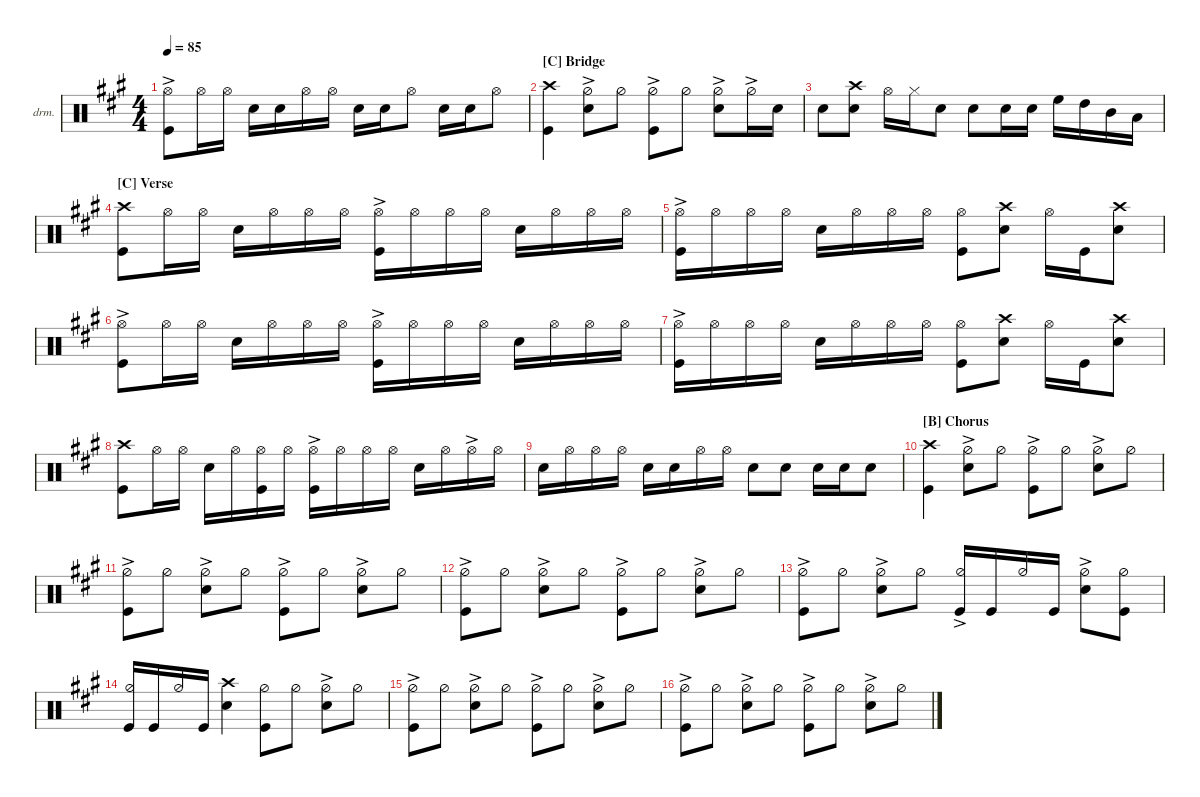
\defaultSystemsLayout 4
\hideDynamics
\bracketExtendMode nobrackets
\firstSystemTrackNameOrientation horizontal
\otherSystemsTrackNameOrientation horizontal
\track ("Drums" "drm.") {instrument percussion}
\staff {score}
\articulation defaults
\ts (4 4)
\tempo 85
\clef neutral
\ks a
("Kick (hit)"{acc forcenatural} "Hi-Hat (open)"{ac acc forcenatural}).8{dy mf beam Down} "Hi-Hat (open)"{acc forcenatural}.16{beam Down} "Hi-Hat (open)"{acc forcenatural}.16{beam Down} "Snare (hit) 2"{acc forcenatural}.16{beam Down} "Snare (hit) 2"{acc forcenatural}.16{beam Down} "Hi-Hat (open)"{acc forcenatural}.16{beam Down} "Hi-Hat (open)"{acc forcenatural}.16{beam Down} "Snare (hit) 2"{acc forcenatural}.16{beam Down} "Snare (hit) 2"{acc forcenatural}.16{beam Down} "Hi-Hat (open)"{acc forcenatural}.8{beam Down} "Snare (hit) 2"{acc forcenatural}.16{beam Down} "Snare (hit) 2"{acc forcenatural}.16{beam Down} "Hi-Hat (open)"{acc forcenatural}.8{beam Down} |
\section ("C" "Bridge")
("Kick (hit)"{acc forcenatural} "Crash high (hit)"{acc forcenatural}).4{beam Down} ("Snare (hit) 2"{acc forcenatural} "Hi-Hat (half)"{ac acc forcenatural}).8{beam Down} "Hi-Hat (half)"{acc forcenatural}.8{beam Down} ("Hi-Hat (half)"{ac acc forcenatural} "Kick (hit)"{acc forcenatural}).8{beam Down} "Hi-Hat (half)"{acc forcenatural}.8{beam Down} ("Snare (hit) 2"{acc forcenatural} "Hi-Hat (half)"{ac acc forcenatural}).8{beam Down} "Hi-Hat (half)"{ac acc forcenatural}.16{beam Down} "Snare (hit) 2"{acc forcenatural}.16{beam Down} |
"Snare (hit) 2"{acc forcenatural}.8{beam Down} ("Snare (hit) 2"{acc forcenatural} "Crash high (hit)"{acc forcenatural}).8{beam Down} "Hi-Hat (open)"{acc forcenatural}.16{beam Down} "Hi-Hat (closed)"{acc forcenatural}.16{beam Down} "Snare (hit) 2"{acc forcenatural}.8{beam Down} "Snare (hit) 2"{acc forcenatural}.8{beam Down} "Snare (hit) 2"{acc forcenatural}.16{beam Down} "Snare (hit) 2"{acc forcenatural}.16{beam Down} "High Floor Tom (hit)"{acc forcenatural}.16{beam Down} "High Tom (hit)"{acc forcenatural}.16{beam Down} "Mid Tom (hit)"{acc forcenatural}.16{beam Down} "Low Tom (hit)"{acc forcenatural}.16{beam Down} |
\section ("C" "Verse")
("Kick (hit)"{acc forcenatural} "Crash high (hit)"{acc forcenatural}).8{beam Down} "Hi-Hat (open)"{acc forcenatural}.16{beam Down} "Hi-Hat (open)"{acc forcenatural}.16{beam Down} "Snare (hit) 2"{acc forcenatural}.16{beam Down} "Hi-Hat (open)"{acc forcenatural}.16{beam Down} "Hi-Hat (open)"{acc forcenatural}.16{beam Down} "Hi-Hat (open)"{acc forcenatural}.16{beam Down} ("Hi-Hat (open)"{ac acc forcenatural} "Kick (hit)"{acc forcenatural}).16{beam Down} "Hi-Hat (open)"{acc forcenatural}.16{beam Down} "Hi-Hat (open)"{acc forcenatural}.16{beam Down} "Hi-Hat (open)"{acc forcenatural}.16{beam Down} "Snare (hit) 2"{acc forcenatural}.16{beam Down} "Hi-Hat (open)"{acc forcenatural}.16{beam Down} "Hi-Hat (open)"{acc forcenatural}.16{beam Down} "Hi-Hat (open)"{acc forcenatural}.16{beam Down} |
("Kick (hit)"{acc forcenatural} "Hi-Hat (open)"{ac acc forcenatural}).16{beam Down} "Hi-Hat (open)"{acc forcenatural}.16{beam Down} "Hi-Hat (open)"{acc forcenatural}.16{beam Down} "Hi-Hat (open)"{acc forcenatural}.16{beam Down} "Snare (hit) 2"{acc forcenatural}.16{beam Down} "Hi-Hat (open)"{acc forcenatural}.16{beam Down} "Hi-Hat (open)"{acc forcenatural}.16{beam Down} "Hi-Hat (open)"{acc forcenatural}.16{beam Down} ("Hi-Hat (open)"{acc forcenatural} "Kick (hit)"{acc forcenatural}).8{beam Down} ("Snare (hit) 2"{acc forcenatural} "Crash high (hit)"{acc forcenatural}).8{beam Down} "Hi-Hat (open)"{acc forcenatural}.16{beam Down} "Kick (hit)"{acc forcenatural}.16{beam Down} ("Snare (hit) 2"{acc forcenatural} "Crash high (hit)"{acc forcenatural}).8{beam Down} |
("Kick (hit)"{acc forcenatural} "Hi-Hat (open)"{ac acc forcenatural}).8{beam Down} "Hi-Hat (open)"{acc forcenatural}.16{beam Down} "Hi-Hat (open)"{acc forcenatural}.16{beam Down} "Snare (hit) 2"{acc forcenatural}.16{beam Down} "Hi-Hat (open)"{acc forcenatural}.16{beam Down} "Hi-Hat (open)"{acc forcenatural}.16{beam Down} "Hi-Hat (open)"{acc forcenatural}.16{beam Down} ("Hi-Hat (open)"{ac acc forcenatural} "Kick (hit)"{acc forcenatural}).16{beam Down} "Hi-Hat (open)"{acc forcenatural}.16{beam Down} "Hi-Hat (open)"{acc forcenatural}.16{beam Down} "Hi-Hat (open)"{acc forcenatural}.16{beam Down} "Snare (hit) 2"{acc forcenatural}.16{beam Down} "Hi-Hat (open)"{acc forcenatural}.16{beam Down} "Hi-Hat (open)"{acc forcenatural}.16{beam Down} "Hi-Hat (open)"{acc forcenatural}.16{beam Down} |
("Kick (hit)"{acc forcenatural} "Hi-Hat (open)"{ac acc forcenatural}).16{beam Down} "Hi-Hat (open)"{acc forcenatural}.16{beam Down} "Hi-Hat (open)"{acc forcenatural}.16{beam Down} "Hi-Hat (open)"{acc forcenatural}.16{beam Down} "Snare (hit) 2"{acc forcenatural}.16{beam Down} "Hi-Hat (open)"{acc forcenatural}.16{beam Down} "Hi-Hat (open)"{acc forcenatural}.16{beam Down} "Hi-Hat (open)"{acc forcenatural}.16{beam Down} ("Hi-Hat (open)"{acc forcenatural} "Kick (hit)"{acc forcenatural}).8{beam Down} ("Snare (hit) 2"{acc forcenatural} "Crash high (hit)"{acc forcenatural}).8{beam Down} "Hi-Hat (open)"{acc forcenatural}.16{beam Down} "Kick (hit)"{acc forcenatural}.16{beam Down} ("Snare (hit) 2"{acc forcenatural} "Crash high (hit)"{acc forcenatural}).8{beam Down} |
("Kick (hit)"{acc forcenatural} "Crash high (hit)"{acc forcenatural}).8{beam Down} "Hi-Hat (open)"{acc forcenatural}.16{beam Down} "Hi-Hat (open)"{acc forcenatural}.16{beam Down} "Snare (hit) 2"{acc forcenatural}.16{beam Down} "Hi-Hat (open)"{acc forcenatural}.16{beam Down} ("Kick (hit)"{acc forcenatural} "Hi-Hat (open)"{acc forcenatural}).16{beam Down} "Hi-Hat (open)"{acc forcenatural}.16{beam Down} ("Kick (hit)"{acc forcenatural} "Hi-Hat (open)"{ac acc forcenatural}).16{beam Down} "Hi-Hat (open)"{acc forcenatural}.16{beam Down} "Hi-Hat (open)"{acc forcenatural}.16{beam Down} "Hi-Hat (open)"{acc forcenatural}.16{beam Down} "Snare (hit) 2"{acc forcenatural}.16{beam Down} "Hi-Hat (open)"{acc forcenatural}.16{beam Down} "Hi-Hat (open)"{ac acc forcenatural}.16{beam Down} "Hi-Hat (open)"{acc forcenatural}.16{beam Down} |
"Snare (hit) 2"{acc forcenatural}.16{beam Down} "Hi-Hat (open)"{acc forcenatural}.16{beam Down} "Hi-Hat (open)"{acc forcenatural}.16{beam Down} "Hi-Hat (open)"{acc forcenatural}.16{beam Down} "Snare (hit) 2"{acc forcenatural}.16{beam Down} "Snare (hit) 2"{acc forcenatural}.16{beam Down} "Hi-Hat (open)"{acc forcenatural}.16{beam Down} "Hi-Hat (open)"{acc forcenatural}.16{beam Down} "Snare (hit) 2"{acc forcenatural}.8{beam Down} "Snare (hit) 2"{acc forcenatural}.8{beam Down} "Snare (hit) 2"{acc forcenatural}.16{beam Down} "Snare (hit) 2"{acc forcenatural}.16{beam Down} "Snare (hit) 2"{acc forcenatural}.8{beam Down} |
\section ("B" "Chorus")
("Kick (hit)"{acc forcenatural} "Crash high (hit)"{acc forcenatural}).4{beam Down} ("Snare (hit) 2"{acc forcenatural} "Hi-Hat (half)"{ac acc forcenatural}).8{beam Down} "Hi-Hat (half)"{acc forcenatural}.8{beam Down} ("Hi-Hat (half)"{ac acc forcenatural} "Kick (hit)"{acc forcenatural}).8{beam Down} "Hi-Hat (half)"{acc forcenatural}.8{beam Down} ("Snare (hit) 2"{acc forcenatural} "Hi-Hat (half)"{ac acc forcenatural}).8{beam Down} "Hi-Hat (half)"{acc forcenatural}.8{beam Down} |
("Kick (hit)"{acc forcenatural} "Hi-Hat (half)"{ac acc forcenatural}).8{beam Down} "Hi-Hat (half)"{acc forcenatural}.8{beam Down} ("Snare (hit) 2"{acc forcenatural} "Hi-Hat (half)"{ac acc forcenatural}).8{beam Down} "Hi-Hat (half)"{acc forcenatural}.8{beam Down} ("Hi-Hat (half)"{ac acc forcenatural} "Kick (hit)"{acc forcenatural}).8{beam Down} "Hi-Hat (half)"{acc forcenatural}.8{beam Down} ("Snare (hit) 2"{acc forcenatural} "Hi-Hat (half)"{ac acc forcenatural}).8{beam Down} "Hi-Hat (half)"{acc forcenatural}.8{beam Down} |
("Kick (hit)"{acc forcenatural} "Hi-Hat (half)"{ac acc forcenatural}).8{beam Down} "Hi-Hat (half)"{acc forcenatural}.8{beam Down} ("Snare (hit) 2"{acc forcenatural} "Hi-Hat (half)"{ac acc forcenatural}).8{beam Down} "Hi-Hat (half)"{acc forcenatural}.8{beam Down} ("Hi-Hat (half)"{ac acc forcenatural} "Kick (hit)"{acc forcenatural}).8{beam Down} "Hi-Hat (half)"{acc forcenatural}.8{beam Down} ("Snare (hit) 2"{acc forcenatural} "Hi-Hat (half)"{ac acc forcenatural}).8{beam Down} "Hi-Hat (half)"{acc forcenatural}.8{beam Down} |
("Kick (hit)"{acc forcenatural} "Hi-Hat (half)"{ac acc forcenatural}).8{beam Down} "Hi-Hat (half)"{acc forcenatural}.8{beam Down} ("Snare (hit) 2"{acc forcenatural} "Hi-Hat (half)"{ac acc forcenatural}).8{beam Down} "Hi-Hat (half)"{acc forcenatural}.8{beam Down} ("Hi-Hat (half)"{ac acc forcenatural} "Kick (hit)"{acc forcenatural}).16{beam Up} "Kick (hit)"{acc forcenatural}.16{beam Up} "Hi-Hat (half)"{acc forcenatural}.16{beam Up} "Kick (hit)"{acc forcenatural}.16{beam Up} ("Snare (hit) 2"{acc forcenatural} "Hi-Hat (half)"{ac acc forcenatural}).8{beam Down} ("Hi-Hat (half)"{acc forcenatural} "Kick (hit)"{acc forcenatural}).8{beam Down} |
("Kick (hit)"{acc forcenatural} "Hi-Hat (half)"{acc forcenatural}).16{beam Up} "Kick (hit)"{acc forcenatural}.16{beam Up} "Hi-Hat (half)"{acc forcenatural}.16{beam Up} "Kick (hit)"{acc forcenatural}.16{beam Up} ("Snare (hit) 2"{acc forcenatural} "Crash high (hit)"{acc forcenatural}).4{beam Down} ("Hi-Hat (half)"{acc forcenatural} "Kick (hit)"{acc forcenatural}).8{beam Down} "Hi-Hat (half)"{acc forcenatural}.8{beam Down} ("Snare (hit) 2"{acc forcenatural} "Hi-Hat (half)"{ac acc forcenatural}).8{beam Down} "Hi-Hat (half)"{acc forcenatural}.8{beam Down} |
("Kick (hit)"{acc forcenatural} "Hi-Hat (half)"{ac acc forcenatural}).8{beam Down} "Hi-Hat (half)"{acc forcenatural}.8{beam Down} ("Snare (hit) 2"{acc forcenatural} "Hi-Hat (half)"{ac acc forcenatural}).8{beam Down} "Hi-Hat (half)"{acc forcenatural}.8{beam Down} ("Hi-Hat (half)"{ac acc forcenatural} "Kick (hit)"{acc forcenatural}).8{beam Down} "Hi-Hat (half)"{acc forcenatural}.8{beam Down} ("Snare (hit) 2"{acc forcenatural} "Hi-Hat (half)"{ac acc forcenatural}).8{beam Down} "Hi-Hat (half)"{acc forcenatural}.8{beam Down} |
("Kick (hit)"{acc forcenatural} "Hi-Hat (half)"{ac acc forcenatural}).8{beam Down} "Hi-Hat (half)"{acc forcenatural}.8{beam Down} ("Snare (hit) 2"{acc forcenatural} "Hi-Hat (half)"{ac acc forcenatural}).8{beam Down} "Hi-Hat (half)"{acc forcenatural}.8{beam Down} ("Hi-Hat (half)"{ac acc forcenatural} "Kick (hit)"{acc forcenatural}).8{beam Down} "Hi-Hat (half)"{acc forcenatural}.8{beam Down} ("Snare (hit) 2"{acc forcenatural} "Hi-Hat (half)"{ac acc forcenatural}).8{beam Down} "Hi-Hat (half)"{acc forcenatural}.8{beam Down}
